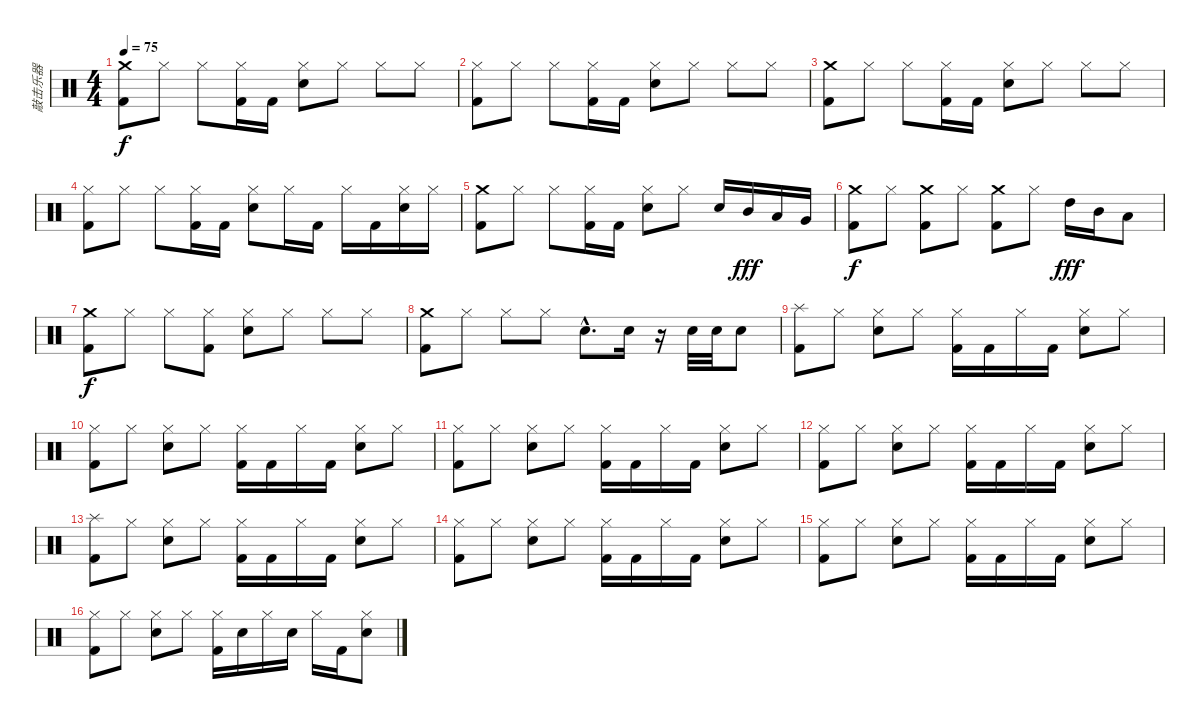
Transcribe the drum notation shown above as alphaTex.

\track ("敲击乐器" "敲击乐器") {instrument percussion}
\staff {score}
\articulation defaults
\ts (4 4)
\tempo 75
\clef neutral
\ks c
("Crash medium (hit)" "Kick (hit) 2").8{dy f} "Hi-Hat (closed)".8 "Hi-Hat (closed)".8 ("Hi-Hat (closed)" "Kick (hit) 2").16 "Kick (hit) 2".16 ("Hi-Hat (closed)" "Electric Snare (hit)").8 "Hi-Hat (closed)".8 "Hi-Hat (closed)".8 "Hi-Hat (closed)".8 |
("Hi-Hat (closed)" "Kick (hit) 2").8 "Hi-Hat (closed)".8 "Hi-Hat (closed)".8 ("Hi-Hat (closed)" "Kick (hit) 2").16 "Kick (hit) 2".16 ("Hi-Hat (closed)" "Electric Snare (hit)").8 "Hi-Hat (closed)".8 "Hi-Hat (closed)".8 "Hi-Hat (closed)".8 |
("Crash medium (hit)" "Kick (hit) 2").8 "Hi-Hat (closed)".8 "Hi-Hat (closed)".8 ("Hi-Hat (closed)" "Kick (hit) 2").16 "Kick (hit) 2".16 ("Hi-Hat (closed)" "Electric Snare (hit)").8 "Hi-Hat (closed)".8 "Hi-Hat (closed)".8 "Hi-Hat (closed)".8 |
("Hi-Hat (closed)" "Kick (hit) 2").8 "Hi-Hat (closed)".8 "Hi-Hat (closed)".8 ("Hi-Hat (closed)" "Kick (hit) 2").16 "Kick (hit) 2".16 ("Hi-Hat (closed)" "Electric Snare (hit)").8 "Hi-Hat (closed)".16 "Kick (hit) 2".16 "Hi-Hat (closed)".16 "Kick (hit) 2".16 ("Hi-Hat (closed)" "Electric Snare (hit)").16 "Hi-Hat (closed)".16 |
("Crash medium (hit)" "Kick (hit) 2").8 "Hi-Hat (closed)".8 "Hi-Hat (closed)".8 ("Hi-Hat (closed)" "Kick (hit) 2").16 "Kick (hit) 2".16 ("Hi-Hat (closed)" "Electric Snare (hit)").8 "Hi-Hat (closed)".8 "Electric Snare (hit)".16 "Mid Tom (hit)".16{dy fff} "Low Tom (hit)".16 "Very Low Tom (hit)".16 |
("Crash medium (hit)" "Kick (hit) 2").8{dy f} "Hi-Hat (closed)".8 ("Crash medium (hit)" "Kick (hit) 2").8 "Hi-Hat (closed)".8 ("Crash medium (hit)" "Kick (hit) 2").8 "Hi-Hat (closed)".8 "High Tom (hit)".16{dy fff} "Mid Tom (hit)".16 "Low Tom (hit)".8 |
("Crash medium (hit)" "Kick (hit) 2").8{dy f} "Hi-Hat (closed)".8 "Hi-Hat (closed)".8 ("Hi-Hat (closed)" "Kick (hit) 2").8 ("Hi-Hat (closed)" "Electric Snare (hit)").8 "Hi-Hat (closed)".8 "Hi-Hat (closed)".8 "Hi-Hat (closed)".8 |
("Crash medium (hit)" "Kick (hit) 2").8 "Hi-Hat (closed)".8 "Hi-Hat (closed)".8 "Hi-Hat (closed)".8 "Electric Snare (hit)"{hac}.8{d} "Electric Snare (hit)".16 r.16 "Electric Snare (hit)".32 "Electric Snare (hit)".32 "Electric Snare (hit)".8 |
("Splash (hit)" "Kick (hit) 2").8 "Hi-Hat (closed)".8 ("Hi-Hat (closed)" "Electric Snare (hit)").8 "Hi-Hat (closed)".8 ("Hi-Hat (closed)" "Kick (hit) 2").16 "Kick (hit) 2".16 "Hi-Hat (closed)".16 "Kick (hit) 2".16 ("Hi-Hat (closed)" "Electric Snare (hit)").8 "Hi-Hat (closed)".8 |
("Hi-Hat (closed)" "Kick (hit) 2").8 "Hi-Hat (closed)".8 ("Hi-Hat (closed)" "Electric Snare (hit)").8 "Hi-Hat (closed)".8 ("Hi-Hat (closed)" "Kick (hit) 2").16 "Kick (hit) 2".16 "Hi-Hat (closed)".16 "Kick (hit) 2".16 ("Hi-Hat (closed)" "Electric Snare (hit)").8 "Hi-Hat (closed)".8 |
("Hi-Hat (closed)" "Kick (hit) 2").8 "Hi-Hat (closed)".8 ("Hi-Hat (closed)" "Electric Snare (hit)").8 "Hi-Hat (closed)".8 ("Hi-Hat (closed)" "Kick (hit) 2").16 "Kick (hit) 2".16 "Hi-Hat (closed)".16 "Kick (hit) 2".16 ("Hi-Hat (closed)" "Electric Snare (hit)").8 "Hi-Hat (closed)".8 |
("Hi-Hat (closed)" "Kick (hit) 2").8 "Hi-Hat (closed)".8 ("Hi-Hat (closed)" "Electric Snare (hit)").8 "Hi-Hat (closed)".8 ("Hi-Hat (closed)" "Kick (hit) 2").16 "Kick (hit) 2".16 "Hi-Hat (closed)".16 "Kick (hit) 2".16 ("Hi-Hat (closed)" "Electric Snare (hit)").8 "Hi-Hat (closed)".8 |
("Splash (hit)" "Kick (hit) 2").8 "Hi-Hat (closed)".8 ("Hi-Hat (closed)" "Electric Snare (hit)").8 "Hi-Hat (closed)".8 ("Hi-Hat (closed)" "Kick (hit) 2").16 "Kick (hit) 2".16 "Hi-Hat (closed)".16 "Kick (hit) 2".16 ("Hi-Hat (closed)" "Electric Snare (hit)").8 "Hi-Hat (closed)".8 |
("Hi-Hat (closed)" "Kick (hit) 2").8 "Hi-Hat (closed)".8 ("Hi-Hat (closed)" "Electric Snare (hit)").8 "Hi-Hat (closed)".8 ("Hi-Hat (closed)" "Kick (hit) 2").16 "Kick (hit) 2".16 "Hi-Hat (closed)".16 "Kick (hit) 2".16 ("Hi-Hat (closed)" "Electric Snare (hit)").8 "Hi-Hat (closed)".8 |
("Hi-Hat (closed)" "Kick (hit) 2").8 "Hi-Hat (closed)".8 ("Hi-Hat (closed)" "Electric Snare (hit)").8 "Hi-Hat (closed)".8 ("Hi-Hat (closed)" "Kick (hit) 2").16 "Kick (hit) 2".16 "Hi-Hat (closed)".16 "Kick (hit) 2".16 ("Hi-Hat (closed)" "Electric Snare (hit)").8 "Hi-Hat (closed)".8 |
("Hi-Hat (closed)" "Kick (hit) 2").8 "Hi-Hat (closed)".8 ("Hi-Hat (closed)" "Electric Snare (hit)").8 "Hi-Hat (closed)".8 ("Hi-Hat (closed)" "Kick (hit) 2").16 "Electric Snare (hit)".16 "Hi-Hat (closed)".16 "Electric Snare (hit)".16 "Hi-Hat (closed)".16 "Kick (hit) 2".16 ("Hi-Hat (closed)" "Electric Snare (hit)").8
